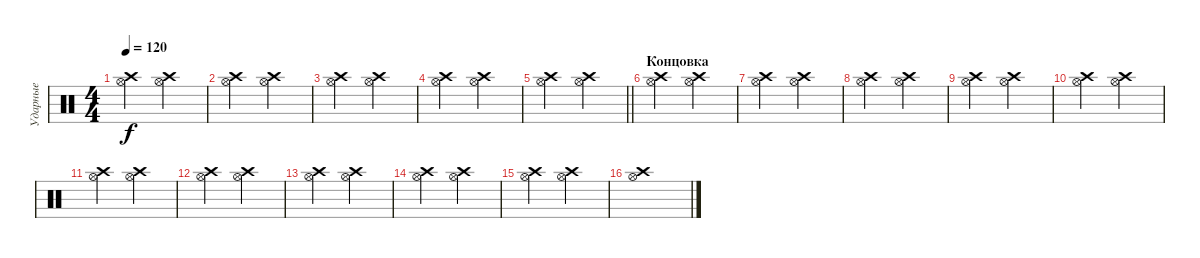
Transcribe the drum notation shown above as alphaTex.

\track ("Ударные" "Ударные") {instrument percussion}
\staff {score}
\articulation defaults
\ts (4 4)
\tempo 120
\clef neutral
\ks c
("Hi-Hat (open)" "Crash high (hit)").4{dy f} ("Hi-Hat (open)" "Crash high (hit)").4 |
("Hi-Hat (open)" "Crash high (hit)").4 ("Hi-Hat (open)" "Crash high (hit)").4 |
("Hi-Hat (open)" "Crash high (hit)").4 ("Hi-Hat (open)" "Crash high (hit)").4 |
("Hi-Hat (open)" "Crash high (hit)").4 ("Hi-Hat (open)" "Crash high (hit)").4 |
\barLineRight lightlight
("Hi-Hat (open)" "Crash high (hit)").4 ("Hi-Hat (open)" "Crash high (hit)").4 |
\section ("" "Концовка")
("Hi-Hat (open)" "Crash high (hit)").4 ("Hi-Hat (open)" "Crash high (hit)").4 |
("Hi-Hat (open)" "Crash high (hit)").4 ("Hi-Hat (open)" "Crash high (hit)").4 |
("Hi-Hat (open)" "Crash high (hit)").4 ("Hi-Hat (open)" "Crash high (hit)").4 |
("Hi-Hat (open)" "Crash high (hit)").4 ("Hi-Hat (open)" "Crash high (hit)").4 |
("Hi-Hat (open)" "Crash high (hit)").4 ("Hi-Hat (open)" "Crash high (hit)").4 |
("Hi-Hat (open)" "Crash high (hit)").4 ("Hi-Hat (open)" "Crash high (hit)").4 |
("Hi-Hat (open)" "Crash high (hit)").4 ("Hi-Hat (open)" "Crash high (hit)").4 |
("Hi-Hat (open)" "Crash high (hit)").4 ("Hi-Hat (open)" "Crash high (hit)").4 |
("Hi-Hat (open)" "Crash high (hit)").4 ("Hi-Hat (open)" "Crash high (hit)").4 |
("Hi-Hat (open)" "Crash high (hit)").4 ("Hi-Hat (open)" "Crash high (hit)").4 |
("Hi-Hat (open)" "Crash high (hit)").1
